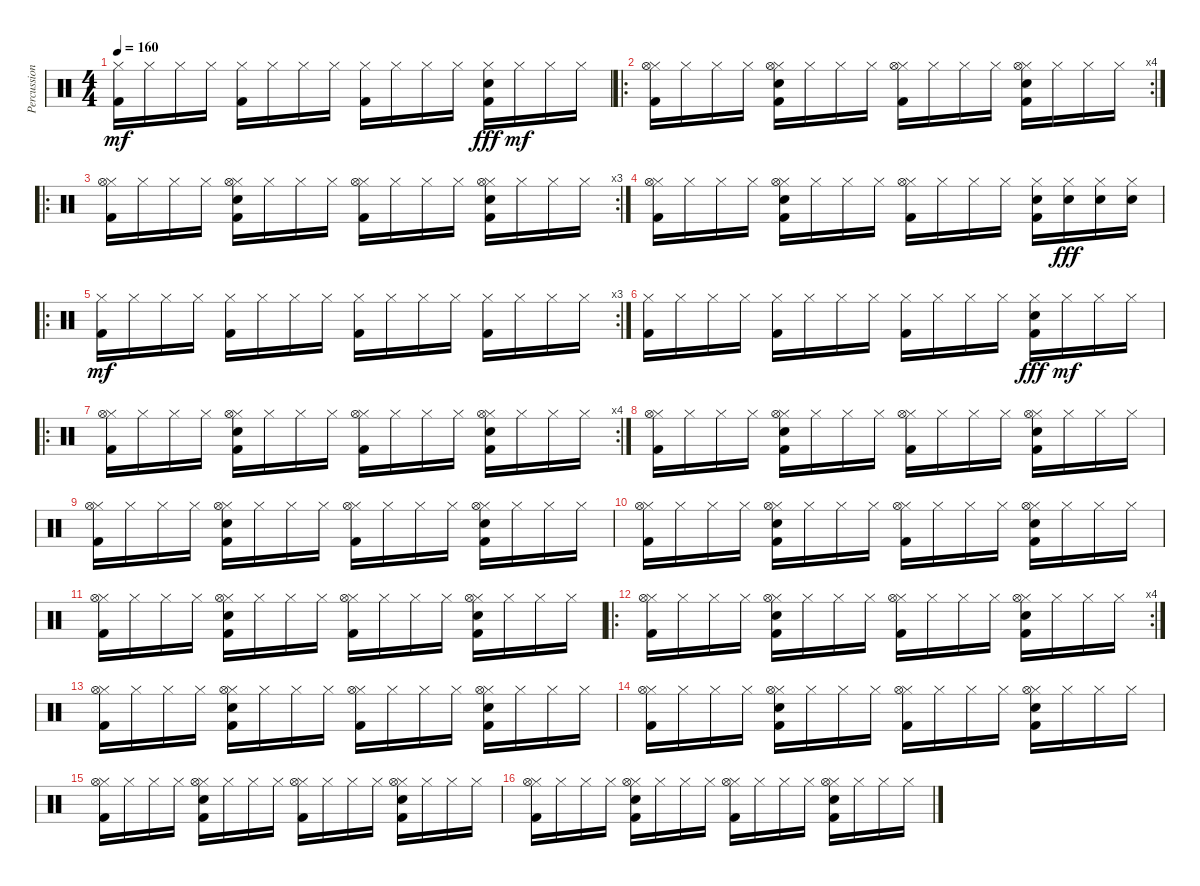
\track ("Percussion" "Percussion") {instrument percussion}
\staff {score}
\articulation defaults
\ts (4 4)
\tempo 160
\clef neutral
\ks c
("Hi-Hat (closed)" "Kick (hit) 2").16{dy mf} "Hi-Hat (closed)".16 "Hi-Hat (closed)".16 "Hi-Hat (closed)".16 ("Hi-Hat (closed)" "Kick (hit) 2").16 "Hi-Hat (closed)".16 "Hi-Hat (closed)".16 "Hi-Hat (closed)".16 ("Hi-Hat (closed)" "Kick (hit) 2").16 "Hi-Hat (closed)".16 "Hi-Hat (closed)".16 "Hi-Hat (closed)".16 ("Hi-Hat (closed)" "Electric Snare (hit)" "Kick (hit) 2").16{dy fff volume 16} "Hi-Hat (closed)".16{dy mf} "Hi-Hat (closed)".16 "Hi-Hat (closed)".16 |
\ro
\rc 4
("Hi-Hat (closed)" "Hi-Hat (open)" "Kick (hit) 2").16 "Hi-Hat (closed)".16 "Hi-Hat (closed)".16 "Hi-Hat (closed)".16 ("Hi-Hat (closed)" "Hi-Hat (open)" "Electric Snare (hit)" "Kick (hit) 2").16 "Hi-Hat (closed)".16 "Hi-Hat (closed)".16 "Hi-Hat (closed)".16 ("Hi-Hat (closed)" "Hi-Hat (open)" "Kick (hit) 2").16 "Hi-Hat (closed)".16 "Hi-Hat (closed)".16 "Hi-Hat (closed)".16 ("Hi-Hat (closed)" "Hi-Hat (open)" "Electric Snare (hit)" "Kick (hit) 2").16 "Hi-Hat (closed)".16 "Hi-Hat (closed)".16 "Hi-Hat (closed)".16 |
\ro
\rc 3
("Hi-Hat (closed)" "Hi-Hat (open)" "Kick (hit) 2").16 "Hi-Hat (closed)".16 "Hi-Hat (closed)".16 "Hi-Hat (closed)".16 ("Hi-Hat (closed)" "Hi-Hat (open)" "Electric Snare (hit)" "Kick (hit) 2").16 "Hi-Hat (closed)".16 "Hi-Hat (closed)".16 "Hi-Hat (closed)".16 ("Hi-Hat (closed)" "Hi-Hat (open)" "Kick (hit) 2").16 "Hi-Hat (closed)".16 "Hi-Hat (closed)".16 "Hi-Hat (closed)".16 ("Hi-Hat (closed)" "Hi-Hat (open)" "Electric Snare (hit)" "Kick (hit) 2").16 "Hi-Hat (closed)".16 "Hi-Hat (closed)".16 "Hi-Hat (closed)".16 |
("Hi-Hat (closed)" "Hi-Hat (open)" "Kick (hit) 2").16 "Hi-Hat (closed)".16 "Hi-Hat (closed)".16 "Hi-Hat (closed)".16 ("Hi-Hat (closed)" "Hi-Hat (open)" "Electric Snare (hit)" "Kick (hit) 2").16 "Hi-Hat (closed)".16 "Hi-Hat (closed)".16 "Hi-Hat (closed)".16 ("Hi-Hat (closed)" "Hi-Hat (open)" "Kick (hit) 2").16 "Hi-Hat (closed)".16 "Hi-Hat (closed)".16 "Hi-Hat (closed)".16 ("Hi-Hat (closed)" "Electric Snare (hit)" "Kick (hit) 2").16 ("Hi-Hat (closed)" "Electric Snare (hit)").16{dy fff} ("Hi-Hat (closed)" "Electric Snare (hit)").16 ("Hi-Hat (closed)" "Electric Snare (hit)").16 |
\ro
\rc 3
("Hi-Hat (closed)" "Kick (hit) 2").16{dy mf volume 13} "Hi-Hat (closed)".16 "Hi-Hat (closed)".16 "Hi-Hat (closed)".16 ("Hi-Hat (closed)" "Kick (hit) 2").16 "Hi-Hat (closed)".16 "Hi-Hat (closed)".16 "Hi-Hat (closed)".16 ("Hi-Hat (closed)" "Kick (hit) 2").16 "Hi-Hat (closed)".16 "Hi-Hat (closed)".16 "Hi-Hat (closed)".16 ("Hi-Hat (closed)" "Kick (hit) 2").16 "Hi-Hat (closed)".16 "Hi-Hat (closed)".16 "Hi-Hat (closed)".16 |
("Hi-Hat (closed)" "Kick (hit) 2").16 "Hi-Hat (closed)".16 "Hi-Hat (closed)".16 "Hi-Hat (closed)".16 ("Hi-Hat (closed)" "Kick (hit) 2").16 "Hi-Hat (closed)".16 "Hi-Hat (closed)".16 "Hi-Hat (closed)".16 ("Hi-Hat (closed)" "Kick (hit) 2").16 "Hi-Hat (closed)".16 "Hi-Hat (closed)".16 "Hi-Hat (closed)".16 ("Hi-Hat (closed)" "Electric Snare (hit)" "Kick (hit) 2").16{dy fff volume 16} "Hi-Hat (closed)".16{dy mf} "Hi-Hat (closed)".16 "Hi-Hat (closed)".16 |
\ro
\rc 4
("Hi-Hat (closed)" "Hi-Hat (open)" "Kick (hit) 2").16 "Hi-Hat (closed)".16 "Hi-Hat (closed)".16 "Hi-Hat (closed)".16 ("Hi-Hat (closed)" "Hi-Hat (open)" "Electric Snare (hit)" "Kick (hit) 2").16 "Hi-Hat (closed)".16 "Hi-Hat (closed)".16 "Hi-Hat (closed)".16 ("Hi-Hat (closed)" "Hi-Hat (open)" "Kick (hit) 2").16 "Hi-Hat (closed)".16 "Hi-Hat (closed)".16 "Hi-Hat (closed)".16 ("Hi-Hat (closed)" "Hi-Hat (open)" "Electric Snare (hit)" "Kick (hit) 2").16 "Hi-Hat (closed)".16 "Hi-Hat (closed)".16 "Hi-Hat (closed)".16 |
("Hi-Hat (closed)" "Hi-Hat (open)" "Kick (hit) 2").16 "Hi-Hat (closed)".16 "Hi-Hat (closed)".16 "Hi-Hat (closed)".16 ("Hi-Hat (closed)" "Hi-Hat (open)" "Electric Snare (hit)" "Kick (hit) 2").16 "Hi-Hat (closed)".16 "Hi-Hat (closed)".16 "Hi-Hat (closed)".16 ("Hi-Hat (closed)" "Hi-Hat (open)" "Kick (hit) 2").16 "Hi-Hat (closed)".16 "Hi-Hat (closed)".16 "Hi-Hat (closed)".16 ("Hi-Hat (closed)" "Hi-Hat (open)" "Electric Snare (hit)" "Kick (hit) 2").16 "Hi-Hat (closed)".16 "Hi-Hat (closed)".16 "Hi-Hat (closed)".16 |
("Hi-Hat (closed)" "Hi-Hat (open)" "Kick (hit) 2").16 "Hi-Hat (closed)".16 "Hi-Hat (closed)".16 "Hi-Hat (closed)".16 ("Hi-Hat (closed)" "Hi-Hat (open)" "Electric Snare (hit)" "Kick (hit) 2").16 "Hi-Hat (closed)".16 "Hi-Hat (closed)".16 "Hi-Hat (closed)".16 ("Hi-Hat (closed)" "Hi-Hat (open)" "Kick (hit) 2").16 "Hi-Hat (closed)".16 "Hi-Hat (closed)".16 "Hi-Hat (closed)".16 ("Hi-Hat (closed)" "Hi-Hat (open)" "Electric Snare (hit)" "Kick (hit) 2").16 "Hi-Hat (closed)".16 "Hi-Hat (closed)".16 "Hi-Hat (closed)".16 |
("Hi-Hat (closed)" "Hi-Hat (open)" "Kick (hit) 2").16 "Hi-Hat (closed)".16 "Hi-Hat (closed)".16 "Hi-Hat (closed)".16 ("Hi-Hat (closed)" "Hi-Hat (open)" "Electric Snare (hit)" "Kick (hit) 2").16 "Hi-Hat (closed)".16 "Hi-Hat (closed)".16 "Hi-Hat (closed)".16 ("Hi-Hat (closed)" "Hi-Hat (open)" "Kick (hit) 2").16 "Hi-Hat (closed)".16 "Hi-Hat (closed)".16 "Hi-Hat (closed)".16 ("Hi-Hat (closed)" "Hi-Hat (open)" "Electric Snare (hit)" "Kick (hit) 2").16 "Hi-Hat (closed)".16 "Hi-Hat (closed)".16 "Hi-Hat (closed)".16 |
("Hi-Hat (closed)" "Hi-Hat (open)" "Kick (hit) 2").16 "Hi-Hat (closed)".16 "Hi-Hat (closed)".16 "Hi-Hat (closed)".16 ("Hi-Hat (closed)" "Hi-Hat (open)" "Electric Snare (hit)" "Kick (hit) 2").16 "Hi-Hat (closed)".16 "Hi-Hat (closed)".16 "Hi-Hat (closed)".16 ("Hi-Hat (closed)" "Hi-Hat (open)" "Kick (hit) 2").16 "Hi-Hat (closed)".16 "Hi-Hat (closed)".16 "Hi-Hat (closed)".16 ("Hi-Hat (closed)" "Hi-Hat (open)" "Electric Snare (hit)" "Kick (hit) 2").16 "Hi-Hat (closed)".16 "Hi-Hat (closed)".16 "Hi-Hat (closed)".16 |
\ro
\rc 4
("Hi-Hat (closed)" "Hi-Hat (open)" "Kick (hit) 2").16 "Hi-Hat (closed)".16 "Hi-Hat (closed)".16 "Hi-Hat (closed)".16 ("Hi-Hat (closed)" "Hi-Hat (open)" "Electric Snare (hit)" "Kick (hit) 2").16 "Hi-Hat (closed)".16 "Hi-Hat (closed)".16 "Hi-Hat (closed)".16 ("Hi-Hat (closed)" "Hi-Hat (open)" "Kick (hit) 2").16 "Hi-Hat (closed)".16 "Hi-Hat (closed)".16 "Hi-Hat (closed)".16 ("Hi-Hat (closed)" "Hi-Hat (open)" "Electric Snare (hit)" "Kick (hit) 2").16 "Hi-Hat (closed)".16 "Hi-Hat (closed)".16 "Hi-Hat (closed)".16 |
("Hi-Hat (closed)" "Hi-Hat (open)" "Kick (hit) 2").16 "Hi-Hat (closed)".16 "Hi-Hat (closed)".16 "Hi-Hat (closed)".16 ("Hi-Hat (closed)" "Hi-Hat (open)" "Electric Snare (hit)" "Kick (hit) 2").16 "Hi-Hat (closed)".16 "Hi-Hat (closed)".16 "Hi-Hat (closed)".16 ("Hi-Hat (closed)" "Hi-Hat (open)" "Kick (hit) 2").16 "Hi-Hat (closed)".16 "Hi-Hat (closed)".16 "Hi-Hat (closed)".16 ("Hi-Hat (closed)" "Hi-Hat (open)" "Electric Snare (hit)" "Kick (hit) 2").16 "Hi-Hat (closed)".16 "Hi-Hat (closed)".16 "Hi-Hat (closed)".16 |
("Hi-Hat (closed)" "Hi-Hat (open)" "Kick (hit) 2").16 "Hi-Hat (closed)".16 "Hi-Hat (closed)".16 "Hi-Hat (closed)".16 ("Hi-Hat (closed)" "Hi-Hat (open)" "Electric Snare (hit)" "Kick (hit) 2").16 "Hi-Hat (closed)".16 "Hi-Hat (closed)".16 "Hi-Hat (closed)".16 ("Hi-Hat (closed)" "Hi-Hat (open)" "Kick (hit) 2").16 "Hi-Hat (closed)".16 "Hi-Hat (closed)".16 "Hi-Hat (closed)".16 ("Hi-Hat (closed)" "Hi-Hat (open)" "Electric Snare (hit)" "Kick (hit) 2").16 "Hi-Hat (closed)".16 "Hi-Hat (closed)".16 "Hi-Hat (closed)".16 |
("Hi-Hat (closed)" "Hi-Hat (open)" "Kick (hit) 2").16 "Hi-Hat (closed)".16 "Hi-Hat (closed)".16 "Hi-Hat (closed)".16 ("Hi-Hat (closed)" "Hi-Hat (open)" "Electric Snare (hit)" "Kick (hit) 2").16 "Hi-Hat (closed)".16 "Hi-Hat (closed)".16 "Hi-Hat (closed)".16 ("Hi-Hat (closed)" "Hi-Hat (open)" "Kick (hit) 2").16 "Hi-Hat (closed)".16 "Hi-Hat (closed)".16 "Hi-Hat (closed)".16 ("Hi-Hat (closed)" "Hi-Hat (open)" "Electric Snare (hit)" "Kick (hit) 2").16 "Hi-Hat (closed)".16 "Hi-Hat (closed)".16 "Hi-Hat (closed)".16 |
("Hi-Hat (closed)" "Hi-Hat (open)" "Kick (hit) 2").16 "Hi-Hat (closed)".16 "Hi-Hat (closed)".16 "Hi-Hat (closed)".16 ("Hi-Hat (closed)" "Hi-Hat (open)" "Electric Snare (hit)" "Kick (hit) 2").16 "Hi-Hat (closed)".16 "Hi-Hat (closed)".16 "Hi-Hat (closed)".16 ("Hi-Hat (closed)" "Hi-Hat (open)" "Kick (hit) 2").16 "Hi-Hat (closed)".16 "Hi-Hat (closed)".16 "Hi-Hat (closed)".16 ("Hi-Hat (closed)" "Hi-Hat (open)" "Electric Snare (hit)" "Kick (hit) 2").16 "Hi-Hat (closed)".16 "Hi-Hat (closed)".16 "Hi-Hat (closed)".16
